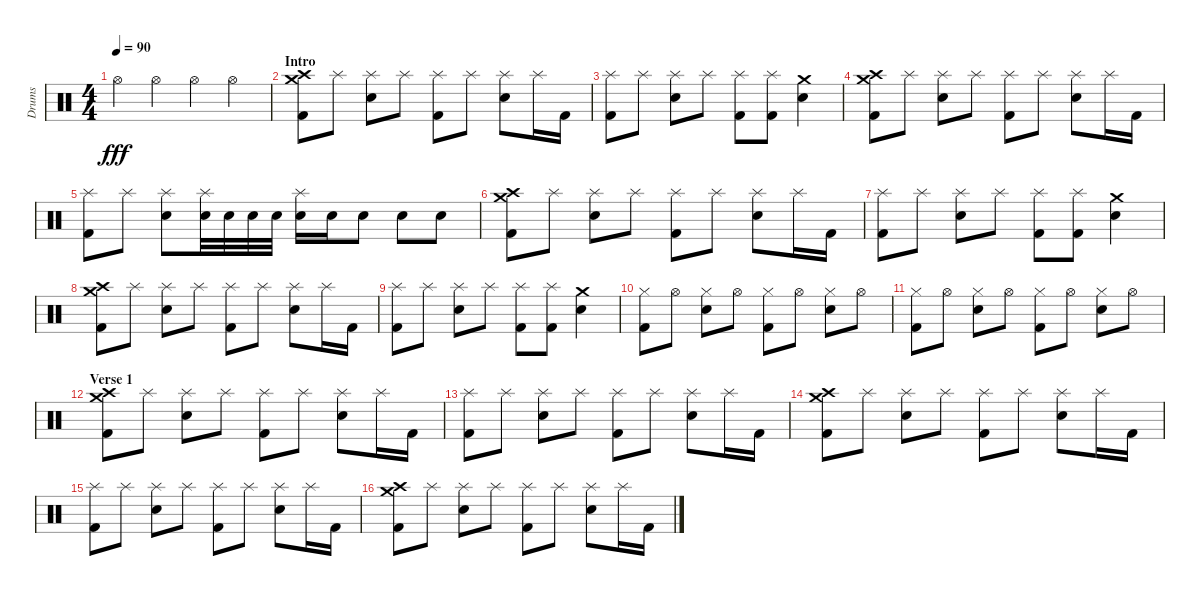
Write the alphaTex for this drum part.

\track ("Drums" "Drums") {instrument percussion}
\staff {score}
\articulation defaults
\ts (4 4)
\tempo 90
\clef neutral
\ks c "Hi-Hat (open)".4{dy fff} "Hi-Hat (open)".4 "Hi-Hat (open)".4 "Hi-Hat (open)".4
|
\section ("" "Intro")
("Crash high (hit)" "Crash medium (hit)" "Kick (hit) 2").8 "Splash (hit)".8 ("Splash (hit)" "Electric Snare (hit)").8 "Splash (hit)".8 ("Splash (hit)" "Kick (hit) 2").8 "Splash (hit)".8 ("Splash (hit)" "Electric Snare (hit)").8 "Splash (hit)".16 "Kick (hit) 2".16 |
("Splash (hit)" "Kick (hit) 2").8 "Splash (hit)".8 ("Splash (hit)" "Electric Snare (hit)").8 "Splash (hit)".8 ("Splash (hit)" "Kick (hit) 2").8 ("Splash (hit)" "Kick (hit) 2").8 ("Crash medium (hit)" "Electric Snare (hit)").4 |
("Crash high (hit)" "Crash medium (hit)" "Kick (hit) 2").8 "Splash (hit)".8 ("Splash (hit)" "Electric Snare (hit)").8 "Splash (hit)".8 ("Splash (hit)" "Kick (hit) 2").8 "Splash (hit)".8 ("Splash (hit)" "Electric Snare (hit)").8 "Splash (hit)".16 "Kick (hit) 2".16 |
("Splash (hit)" "Kick (hit) 2").8 "Splash (hit)".8 ("Splash (hit)" "Electric Snare (hit)").8 ("Splash (hit)" "Electric Snare (hit)").32 "Electric Snare (hit)".32 "Electric Snare (hit)".32 "Electric Snare (hit)".32 ("Splash (hit)" "Electric Snare (hit)").16 "Electric Snare (hit)".16 "Electric Snare (hit)".8 "Electric Snare (hit)".8 "Electric Snare (hit)".8 |
("Crash high (hit)" "Crash medium (hit)" "Kick (hit) 2").8 "Splash (hit)".8 ("Splash (hit)" "Electric Snare (hit)").8 "Splash (hit)".8 ("Splash (hit)" "Kick (hit) 2").8 "Splash (hit)".8 ("Splash (hit)" "Electric Snare (hit)").8 "Splash (hit)".16 "Kick (hit) 2".16 |
("Splash (hit)" "Kick (hit) 2").8 "Splash (hit)".8 ("Splash (hit)" "Electric Snare (hit)").8 "Splash (hit)".8 ("Splash (hit)" "Kick (hit) 2").8 ("Splash (hit)" "Kick (hit) 2").8 ("Crash medium (hit)" "Electric Snare (hit)").4 |
("Crash high (hit)" "Crash medium (hit)" "Kick (hit) 2").8 "Splash (hit)".8 ("Splash (hit)" "Electric Snare (hit)").8 "Splash (hit)".8 ("Splash (hit)" "Kick (hit) 2").8 "Splash (hit)".8 ("Splash (hit)" "Electric Snare (hit)").8 "Splash (hit)".16 "Kick (hit) 2".16 |
("Splash (hit)" "Kick (hit) 2").8 "Splash (hit)".8 ("Splash (hit)" "Electric Snare (hit)").8 "Splash (hit)".8 ("Splash (hit)" "Kick (hit) 2").8 ("Splash (hit)" "Kick (hit) 2").8 ("Crash medium (hit)" "Electric Snare (hit)").4 |
("Hi-Hat (closed)" "Kick (hit) 2").8 "Hi-Hat (open)".8 ("Hi-Hat (closed)" "Electric Snare (hit)").8 "Hi-Hat (open)".8 ("Hi-Hat (closed)" "Kick (hit) 2").8 "Hi-Hat (open)".8 ("Hi-Hat (closed)" "Electric Snare (hit)").8 "Hi-Hat (open)".8 |
("Hi-Hat (closed)" "Kick (hit) 2").8 "Hi-Hat (open)".8 ("Hi-Hat (closed)" "Electric Snare (hit)").8 "Hi-Hat (open)".8 ("Hi-Hat (closed)" "Kick (hit) 2").8 "Hi-Hat (open)".8 ("Hi-Hat (closed)" "Electric Snare (hit)").8 "Hi-Hat (open)".8 |
\section ("" "Verse 1")
("Crash high (hit)" "Crash medium (hit)" "Kick (hit) 2").8 "Splash (hit)".8 ("Splash (hit)" "Electric Snare (hit)").8 "Splash (hit)".8 ("Splash (hit)" "Kick (hit) 2").8 "Splash (hit)".8 ("Splash (hit)" "Electric Snare (hit)").8 "Splash (hit)".16 "Kick (hit) 2".16 |
("Splash (hit)" "Kick (hit) 2").8 "Splash (hit)".8 ("Splash (hit)" "Electric Snare (hit)").8 "Splash (hit)".8 ("Splash (hit)" "Kick (hit) 2").8 "Splash (hit)".8 ("Splash (hit)" "Electric Snare (hit)").8 "Splash (hit)".16 "Kick (hit) 2".16 |
("Crash high (hit)" "Crash medium (hit)" "Kick (hit) 2").8 "Splash (hit)".8 ("Splash (hit)" "Electric Snare (hit)").8 "Splash (hit)".8 ("Splash (hit)" "Kick (hit) 2").8 "Splash (hit)".8 ("Splash (hit)" "Electric Snare (hit)").8 "Splash (hit)".16 "Kick (hit) 2".16 |
("Splash (hit)" "Kick (hit) 2").8 "Splash (hit)".8 ("Splash (hit)" "Electric Snare (hit)").8 "Splash (hit)".8 ("Splash (hit)" "Kick (hit) 2").8 "Splash (hit)".8 ("Splash (hit)" "Electric Snare (hit)").8 "Splash (hit)".16 "Kick (hit) 2".16 |
("Crash high (hit)" "Crash medium (hit)" "Kick (hit) 2").8 "Splash (hit)".8 ("Splash (hit)" "Electric Snare (hit)").8 "Splash (hit)".8 ("Splash (hit)" "Kick (hit) 2").8 "Splash (hit)".8 ("Splash (hit)" "Electric Snare (hit)").8 "Splash (hit)".16 "Kick (hit) 2".16
